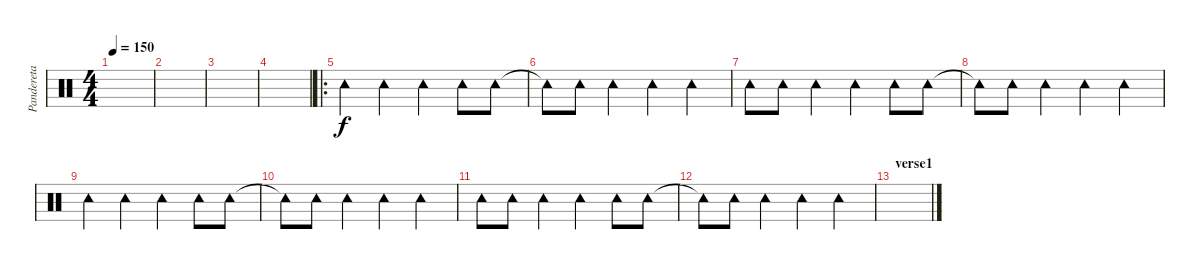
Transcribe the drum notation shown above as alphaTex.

\track ("Pandereta" "Pandereta") {instrument percussion}
\staff {score}
\articulation defaults
\ts (4 4)
\tempo 150
\clef neutral
\ks c
|
|
|
|
\ro "Tambourine (hit)".4 "Tambourine (hit)".4 "Tambourine (hit)".4 "Tambourine (hit)".8 "Tambourine (hit)".8
|
"Tambourine (hit)"{t}.8 "Tambourine (hit)".8 "Tambourine (hit)".4 "Tambourine (hit)".4 "Tambourine (hit)".4 |
"Tambourine (hit)".8 "Tambourine (hit)".8 "Tambourine (hit)".4 "Tambourine (hit)".4 "Tambourine (hit)".8 "Tambourine (hit)".8 |
"Tambourine (hit)"{t}.8 "Tambourine (hit)".8 "Tambourine (hit)".4 "Tambourine (hit)".4 "Tambourine (hit)".4 |
"Tambourine (hit)".4 "Tambourine (hit)".4 "Tambourine (hit)".4 "Tambourine (hit)".8 "Tambourine (hit)".8 |
"Tambourine (hit)"{t}.8 "Tambourine (hit)".8 "Tambourine (hit)".4 "Tambourine (hit)".4 "Tambourine (hit)".4 |
"Tambourine (hit)".8 "Tambourine (hit)".8 "Tambourine (hit)".4 "Tambourine (hit)".4 "Tambourine (hit)".8 "Tambourine (hit)".8 |
"Tambourine (hit)"{t}.8 "Tambourine (hit)".8 "Tambourine (hit)".4 "Tambourine (hit)".4 "Tambourine (hit)".4 |
\section ("" "verse1")
